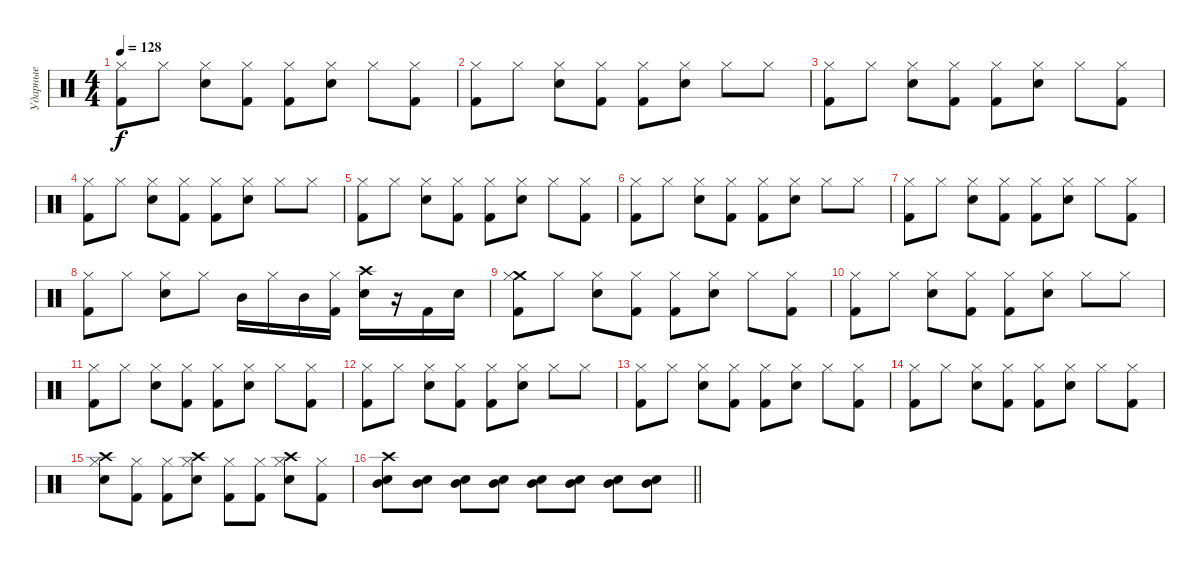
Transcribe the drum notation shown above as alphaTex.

\track ("Ударные" "Ударные") {instrument percussion}
\staff {score}
\articulation defaults
\ts (4 4)
\tempo 128
\clef neutral
\ks c
("Kick (hit) 2" "Hi-Hat (closed)").8{dy f} "Hi-Hat (closed)".8 ("Snare (hit) 2" "Hi-Hat (closed)").8 ("Kick (hit) 2" "Hi-Hat (closed)").8 ("Kick (hit) 2" "Hi-Hat (closed)").8 ("Snare (hit) 2" "Hi-Hat (closed)").8 "Hi-Hat (closed)".8 ("Kick (hit) 2" "Hi-Hat (closed)").8 |
("Kick (hit) 2" "Hi-Hat (closed)").8 "Hi-Hat (closed)".8 ("Snare (hit) 2" "Hi-Hat (closed)").8 ("Kick (hit) 2" "Hi-Hat (closed)").8 ("Kick (hit) 2" "Hi-Hat (closed)").8 ("Snare (hit) 2" "Hi-Hat (closed)").8 "Hi-Hat (closed)".8 "Hi-Hat (closed)".8 |
("Kick (hit) 2" "Hi-Hat (closed)").8 "Hi-Hat (closed)".8 ("Snare (hit) 2" "Hi-Hat (closed)").8 ("Kick (hit) 2" "Hi-Hat (closed)").8 ("Kick (hit) 2" "Hi-Hat (closed)").8 ("Snare (hit) 2" "Hi-Hat (closed)").8 "Hi-Hat (closed)".8 ("Kick (hit) 2" "Hi-Hat (closed)").8 |
("Kick (hit) 2" "Hi-Hat (closed)").8 "Hi-Hat (closed)".8 ("Snare (hit) 2" "Hi-Hat (closed)").8 ("Kick (hit) 2" "Hi-Hat (closed)").8 ("Kick (hit) 2" "Hi-Hat (closed)").8 ("Snare (hit) 2" "Hi-Hat (closed)").8 "Hi-Hat (closed)".8 "Hi-Hat (closed)".8 |
("Kick (hit) 2" "Hi-Hat (closed)").8 "Hi-Hat (closed)".8 ("Snare (hit) 2" "Hi-Hat (closed)").8 ("Kick (hit) 2" "Hi-Hat (closed)").8 ("Kick (hit) 2" "Hi-Hat (closed)").8 ("Snare (hit) 2" "Hi-Hat (closed)").8 "Hi-Hat (closed)".8 ("Kick (hit) 2" "Hi-Hat (closed)").8 |
("Kick (hit) 2" "Hi-Hat (closed)").8 "Hi-Hat (closed)".8 ("Snare (hit) 2" "Hi-Hat (closed)").8 ("Kick (hit) 2" "Hi-Hat (closed)").8 ("Kick (hit) 2" "Hi-Hat (closed)").8 ("Snare (hit) 2" "Hi-Hat (closed)").8 "Hi-Hat (closed)".8 "Hi-Hat (closed)".8 |
("Kick (hit) 2" "Hi-Hat (closed)").8 "Hi-Hat (closed)".8 ("Snare (hit) 2" "Hi-Hat (closed)").8 ("Kick (hit) 2" "Hi-Hat (closed)").8 ("Kick (hit) 2" "Hi-Hat (closed)").8 ("Snare (hit) 2" "Hi-Hat (closed)").8 "Hi-Hat (closed)".8 ("Kick (hit) 2" "Hi-Hat (closed)").8 |
("Kick (hit) 2" "Hi-Hat (closed)").8 "Hi-Hat (closed)".8 ("Snare (hit) 2" "Hi-Hat (closed)").8 "Hi-Hat (closed)".8 "Mid Tom (hit)".16 "Hi-Hat (closed)".16 "Mid Tom (hit)".16 ("Kick (hit) 2" "Hi-Hat (closed)").16 ("Snare (hit) 2" "Crash high (hit)").16 r.16 "Kick (hit) 2".16 "Snare (hit) 2".16 |
("Kick (hit) 2" "Crash medium (hit)" "Hi-Hat (closed)").8 "Hi-Hat (closed)".8 ("Snare (hit) 2" "Hi-Hat (closed)").8 ("Kick (hit) 2" "Hi-Hat (closed)").8 ("Kick (hit) 2" "Hi-Hat (closed)").8 ("Snare (hit) 2" "Hi-Hat (closed)").8 "Hi-Hat (closed)".8 ("Kick (hit) 2" "Hi-Hat (closed)").8 |
("Kick (hit) 2" "Hi-Hat (closed)").8 "Hi-Hat (closed)".8 ("Snare (hit) 2" "Hi-Hat (closed)").8 ("Kick (hit) 2" "Hi-Hat (closed)").8 ("Kick (hit) 2" "Hi-Hat (closed)").8 ("Snare (hit) 2" "Hi-Hat (closed)").8 "Hi-Hat (closed)".8 "Hi-Hat (closed)".8 |
("Kick (hit) 2" "Hi-Hat (closed)").8 "Hi-Hat (closed)".8 ("Snare (hit) 2" "Hi-Hat (closed)").8 ("Kick (hit) 2" "Hi-Hat (closed)").8 ("Kick (hit) 2" "Hi-Hat (closed)").8 ("Snare (hit) 2" "Hi-Hat (closed)").8 "Hi-Hat (closed)".8 ("Kick (hit) 2" "Hi-Hat (closed)").8 |
("Kick (hit) 2" "Hi-Hat (closed)").8 "Hi-Hat (closed)".8 ("Snare (hit) 2" "Hi-Hat (closed)").8 ("Kick (hit) 2" "Hi-Hat (closed)").8 ("Kick (hit) 2" "Hi-Hat (closed)").8 ("Snare (hit) 2" "Hi-Hat (closed)").8 "Hi-Hat (closed)".8 "Hi-Hat (closed)".8 |
("Kick (hit) 2" "Hi-Hat (closed)").8 "Hi-Hat (closed)".8 ("Snare (hit) 2" "Hi-Hat (closed)").8 ("Kick (hit) 2" "Hi-Hat (closed)").8 ("Kick (hit) 2" "Hi-Hat (closed)").8 ("Snare (hit) 2" "Hi-Hat (closed)").8 "Hi-Hat (closed)".8 ("Kick (hit) 2" "Hi-Hat (closed)").8 |
("Kick (hit) 2" "Hi-Hat (closed)").8 "Hi-Hat (closed)".8 ("Snare (hit) 2" "Hi-Hat (closed)").8 ("Kick (hit) 2" "Hi-Hat (closed)").8 ("Kick (hit) 2" "Hi-Hat (closed)").8 ("Snare (hit) 2" "Hi-Hat (closed)").8 "Hi-Hat (closed)".8 ("Kick (hit) 2" "Hi-Hat (closed)").8 |
("Crash high (hit)" "Snare (hit) 2" "Hi-Hat (closed)").8 ("Kick (hit) 2" "Hi-Hat (closed)").8 ("Kick (hit) 2" "Hi-Hat (closed)").8 ("Crash high (hit)" "Snare (hit) 2" "Hi-Hat (closed)").8 ("Kick (hit) 2" "Hi-Hat (closed)").8 ("Kick (hit) 2" "Hi-Hat (closed)").8 ("Crash high (hit)" "Snare (hit) 2" "Hi-Hat (closed)").8 ("Kick (hit) 2" "Hi-Hat (closed)").8 |
\barLineRight lightlight
("Crash high (hit)" "Snare (hit) 2" "Mid Tom (hit)").8 ("Snare (hit) 2" "Mid Tom (hit)").8 ("Snare (hit) 2" "Mid Tom (hit)").8 ("Snare (hit) 2" "Mid Tom (hit)").8 ("Snare (hit) 2" "Mid Tom (hit)").8 ("Snare (hit) 2" "Mid Tom (hit)").8 ("Snare (hit) 2" "Mid Tom (hit)").8 ("Snare (hit) 2" "Mid Tom (hit)").8
